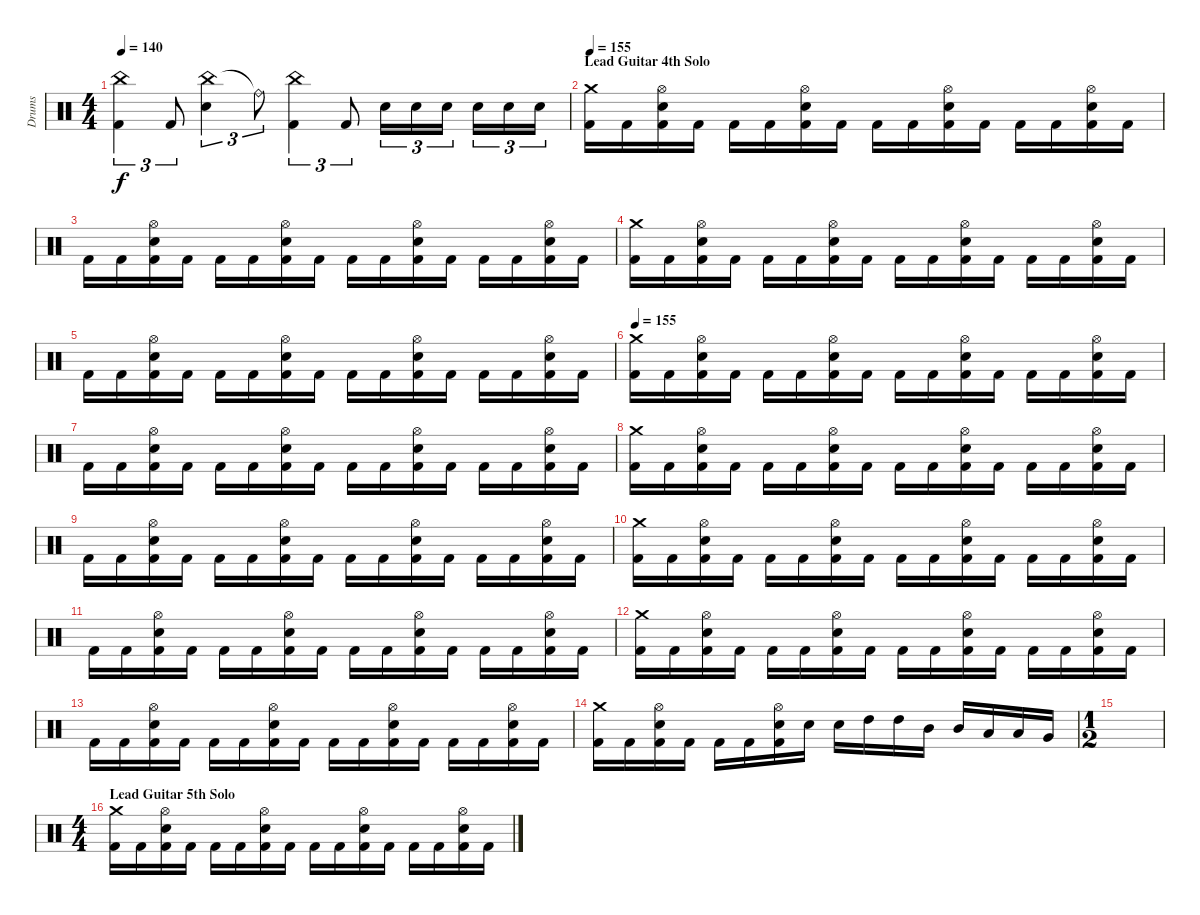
\track ("Drums" "Drums") {instrument percussion}
\staff {score}
\articulation defaults
\ts (4 4)
\tempo 140
\clef neutral
\ks c
("China (hit)" "Kick (hit) 2").4{tu (3 2) dy f} "Kick (hit) 2".8{tu (3 2)} ("China (hit)" "Electric Snare (hit)").4{tu (3 2)} "Ride (bell)"{t}.8{tu (3 2)} ("China (hit)" "Kick (hit) 2").4{tu (3 2)} "Kick (hit) 2".8{tu (3 2)} "Electric Snare (hit)".16{tu (3 2)} "Electric Snare (hit)".16{tu (3 2)} "Electric Snare (hit)".16{tu (3 2)} "Electric Snare (hit)".16{tu (3 2)} "Electric Snare (hit)".16{tu (3 2)} "Electric Snare (hit)".16{tu (3 2)} |
\section ("" "Lead Guitar 4th Solo")
\tempo 155
("Crash medium (hit)" "Kick (hit) 2").16 "Kick (hit) 2".16 ("Hi-Hat (open)" "Electric Snare (hit)" "Kick (hit) 2").16 "Kick (hit) 2".16 "Kick (hit) 2".16 "Kick (hit) 2".16 ("Hi-Hat (open)" "Electric Snare (hit)" "Kick (hit) 2").16 "Kick (hit) 2".16 "Kick (hit) 2".16 "Kick (hit) 2".16 ("Hi-Hat (open)" "Electric Snare (hit)" "Kick (hit) 2").16 "Kick (hit) 2".16 "Kick (hit) 2".16 "Kick (hit) 2".16 ("Hi-Hat (open)" "Electric Snare (hit)" "Kick (hit) 2").16 "Kick (hit) 2".16 |
"Kick (hit) 2".16 "Kick (hit) 2".16 ("Hi-Hat (open)" "Electric Snare (hit)" "Kick (hit) 2").16 "Kick (hit) 2".16 "Kick (hit) 2".16 "Kick (hit) 2".16 ("Hi-Hat (open)" "Electric Snare (hit)" "Kick (hit) 2").16 "Kick (hit) 2".16 "Kick (hit) 2".16 "Kick (hit) 2".16 ("Hi-Hat (open)" "Electric Snare (hit)" "Kick (hit) 2").16 "Kick (hit) 2".16 "Kick (hit) 2".16 "Kick (hit) 2".16 ("Hi-Hat (open)" "Electric Snare (hit)" "Kick (hit) 2").16 "Kick (hit) 2".16 |
("Crash medium (hit)" "Kick (hit) 2").16 "Kick (hit) 2".16 ("Hi-Hat (open)" "Electric Snare (hit)" "Kick (hit) 2").16 "Kick (hit) 2".16 "Kick (hit) 2".16 "Kick (hit) 2".16 ("Hi-Hat (open)" "Electric Snare (hit)" "Kick (hit) 2").16 "Kick (hit) 2".16 "Kick (hit) 2".16 "Kick (hit) 2".16 ("Hi-Hat (open)" "Electric Snare (hit)" "Kick (hit) 2").16 "Kick (hit) 2".16 "Kick (hit) 2".16 "Kick (hit) 2".16 ("Hi-Hat (open)" "Electric Snare (hit)" "Kick (hit) 2").16 "Kick (hit) 2".16 |
"Kick (hit) 2".16 "Kick (hit) 2".16 ("Hi-Hat (open)" "Electric Snare (hit)" "Kick (hit) 2").16 "Kick (hit) 2".16 "Kick (hit) 2".16 "Kick (hit) 2".16 ("Hi-Hat (open)" "Electric Snare (hit)" "Kick (hit) 2").16 "Kick (hit) 2".16 "Kick (hit) 2".16 "Kick (hit) 2".16 ("Hi-Hat (open)" "Electric Snare (hit)" "Kick (hit) 2").16 "Kick (hit) 2".16 "Kick (hit) 2".16 "Kick (hit) 2".16 ("Hi-Hat (open)" "Electric Snare (hit)" "Kick (hit) 2").16 "Kick (hit) 2".16 |
\tempo 155
("Crash medium (hit)" "Kick (hit) 2").16 "Kick (hit) 2".16 ("Hi-Hat (open)" "Electric Snare (hit)" "Kick (hit) 2").16 "Kick (hit) 2".16 "Kick (hit) 2".16 "Kick (hit) 2".16 ("Hi-Hat (open)" "Electric Snare (hit)" "Kick (hit) 2").16 "Kick (hit) 2".16 "Kick (hit) 2".16 "Kick (hit) 2".16 ("Hi-Hat (open)" "Electric Snare (hit)" "Kick (hit) 2").16 "Kick (hit) 2".16 "Kick (hit) 2".16 "Kick (hit) 2".16 ("Hi-Hat (open)" "Electric Snare (hit)" "Kick (hit) 2").16 "Kick (hit) 2".16 |
"Kick (hit) 2".16 "Kick (hit) 2".16 ("Hi-Hat (open)" "Electric Snare (hit)" "Kick (hit) 2").16 "Kick (hit) 2".16 "Kick (hit) 2".16 "Kick (hit) 2".16 ("Hi-Hat (open)" "Electric Snare (hit)" "Kick (hit) 2").16 "Kick (hit) 2".16 "Kick (hit) 2".16 "Kick (hit) 2".16 ("Hi-Hat (open)" "Electric Snare (hit)" "Kick (hit) 2").16 "Kick (hit) 2".16 "Kick (hit) 2".16 "Kick (hit) 2".16 ("Hi-Hat (open)" "Electric Snare (hit)" "Kick (hit) 2").16 "Kick (hit) 2".16 |
("Crash medium (hit)" "Kick (hit) 2").16 "Kick (hit) 2".16 ("Hi-Hat (open)" "Electric Snare (hit)" "Kick (hit) 2").16 "Kick (hit) 2".16 "Kick (hit) 2".16 "Kick (hit) 2".16 ("Hi-Hat (open)" "Electric Snare (hit)" "Kick (hit) 2").16 "Kick (hit) 2".16 "Kick (hit) 2".16 "Kick (hit) 2".16 ("Hi-Hat (open)" "Electric Snare (hit)" "Kick (hit) 2").16 "Kick (hit) 2".16 "Kick (hit) 2".16 "Kick (hit) 2".16 ("Hi-Hat (open)" "Electric Snare (hit)" "Kick (hit) 2").16 "Kick (hit) 2".16 |
"Kick (hit) 2".16 "Kick (hit) 2".16 ("Hi-Hat (open)" "Electric Snare (hit)" "Kick (hit) 2").16 "Kick (hit) 2".16 "Kick (hit) 2".16 "Kick (hit) 2".16 ("Hi-Hat (open)" "Electric Snare (hit)" "Kick (hit) 2").16 "Kick (hit) 2".16 "Kick (hit) 2".16 "Kick (hit) 2".16 ("Hi-Hat (open)" "Electric Snare (hit)" "Kick (hit) 2").16 "Kick (hit) 2".16 "Kick (hit) 2".16 "Kick (hit) 2".16 ("Hi-Hat (open)" "Electric Snare (hit)" "Kick (hit) 2").16 "Kick (hit) 2".16 |
("Crash medium (hit)" "Kick (hit) 2").16 "Kick (hit) 2".16 ("Hi-Hat (open)" "Electric Snare (hit)" "Kick (hit) 2").16 "Kick (hit) 2".16 "Kick (hit) 2".16 "Kick (hit) 2".16 ("Hi-Hat (open)" "Electric Snare (hit)" "Kick (hit) 2").16 "Kick (hit) 2".16 "Kick (hit) 2".16 "Kick (hit) 2".16 ("Hi-Hat (open)" "Electric Snare (hit)" "Kick (hit) 2").16 "Kick (hit) 2".16 "Kick (hit) 2".16 "Kick (hit) 2".16 ("Hi-Hat (open)" "Electric Snare (hit)" "Kick (hit) 2").16 "Kick (hit) 2".16 |
"Kick (hit) 2".16 "Kick (hit) 2".16 ("Hi-Hat (open)" "Electric Snare (hit)" "Kick (hit) 2").16 "Kick (hit) 2".16 "Kick (hit) 2".16 "Kick (hit) 2".16 ("Hi-Hat (open)" "Electric Snare (hit)" "Kick (hit) 2").16 "Kick (hit) 2".16 "Kick (hit) 2".16 "Kick (hit) 2".16 ("Hi-Hat (open)" "Electric Snare (hit)" "Kick (hit) 2").16 "Kick (hit) 2".16 "Kick (hit) 2".16 "Kick (hit) 2".16 ("Hi-Hat (open)" "Electric Snare (hit)" "Kick (hit) 2").16 "Kick (hit) 2".16 |
("Crash medium (hit)" "Kick (hit) 2").16 "Kick (hit) 2".16 ("Hi-Hat (open)" "Electric Snare (hit)" "Kick (hit) 2").16 "Kick (hit) 2".16 "Kick (hit) 2".16 "Kick (hit) 2".16 ("Hi-Hat (open)" "Electric Snare (hit)" "Kick (hit) 2").16 "Kick (hit) 2".16 "Kick (hit) 2".16 "Kick (hit) 2".16 ("Hi-Hat (open)" "Electric Snare (hit)" "Kick (hit) 2").16 "Kick (hit) 2".16 "Kick (hit) 2".16 "Kick (hit) 2".16 ("Hi-Hat (open)" "Electric Snare (hit)" "Kick (hit) 2").16 "Kick (hit) 2".16 |
"Kick (hit) 2".16 "Kick (hit) 2".16 ("Hi-Hat (open)" "Electric Snare (hit)" "Kick (hit) 2").16 "Kick (hit) 2".16 "Kick (hit) 2".16 "Kick (hit) 2".16 ("Hi-Hat (open)" "Electric Snare (hit)" "Kick (hit) 2").16 "Kick (hit) 2".16 "Kick (hit) 2".16 "Kick (hit) 2".16 ("Hi-Hat (open)" "Electric Snare (hit)" "Kick (hit) 2").16 "Kick (hit) 2".16 "Kick (hit) 2".16 "Kick (hit) 2".16 ("Hi-Hat (open)" "Electric Snare (hit)" "Kick (hit) 2").16 "Kick (hit) 2".16 |
("Crash medium (hit)" "Kick (hit) 2").16 "Kick (hit) 2".16 ("Hi-Hat (open)" "Electric Snare (hit)" "Kick (hit) 2").16 "Kick (hit) 2".16 "Kick (hit) 2".16 "Kick (hit) 2".16 ("Hi-Hat (open)" "Electric Snare (hit)" "Kick (hit) 2").16 "Electric Snare (hit)".16 "Electric Snare (hit)".16 "High Tom (hit)".16 "High Tom (hit)".16 "Mid Tom (hit)".16 "Mid Tom (hit)".16 "Low Tom (hit)".16 "Low Tom (hit)".16 "Very Low Tom (hit)".16 |
\ts (1 2)
|
\ts (4 4)
\section ("" "Lead Guitar 5th Solo")
("Crash medium (hit)" "Kick (hit) 2").16 "Kick (hit) 2".16 ("Hi-Hat (open)" "Electric Snare (hit)" "Kick (hit) 2").16 "Kick (hit) 2".16 "Kick (hit) 2".16 "Kick (hit) 2".16 ("Hi-Hat (open)" "Electric Snare (hit)" "Kick (hit) 2").16 "Kick (hit) 2".16 "Kick (hit) 2".16 "Kick (hit) 2".16 ("Hi-Hat (open)" "Electric Snare (hit)" "Kick (hit) 2").16 "Kick (hit) 2".16 "Kick (hit) 2".16 "Kick (hit) 2".16 ("Hi-Hat (open)" "Electric Snare (hit)" "Kick (hit) 2").16 "Kick (hit) 2".16
